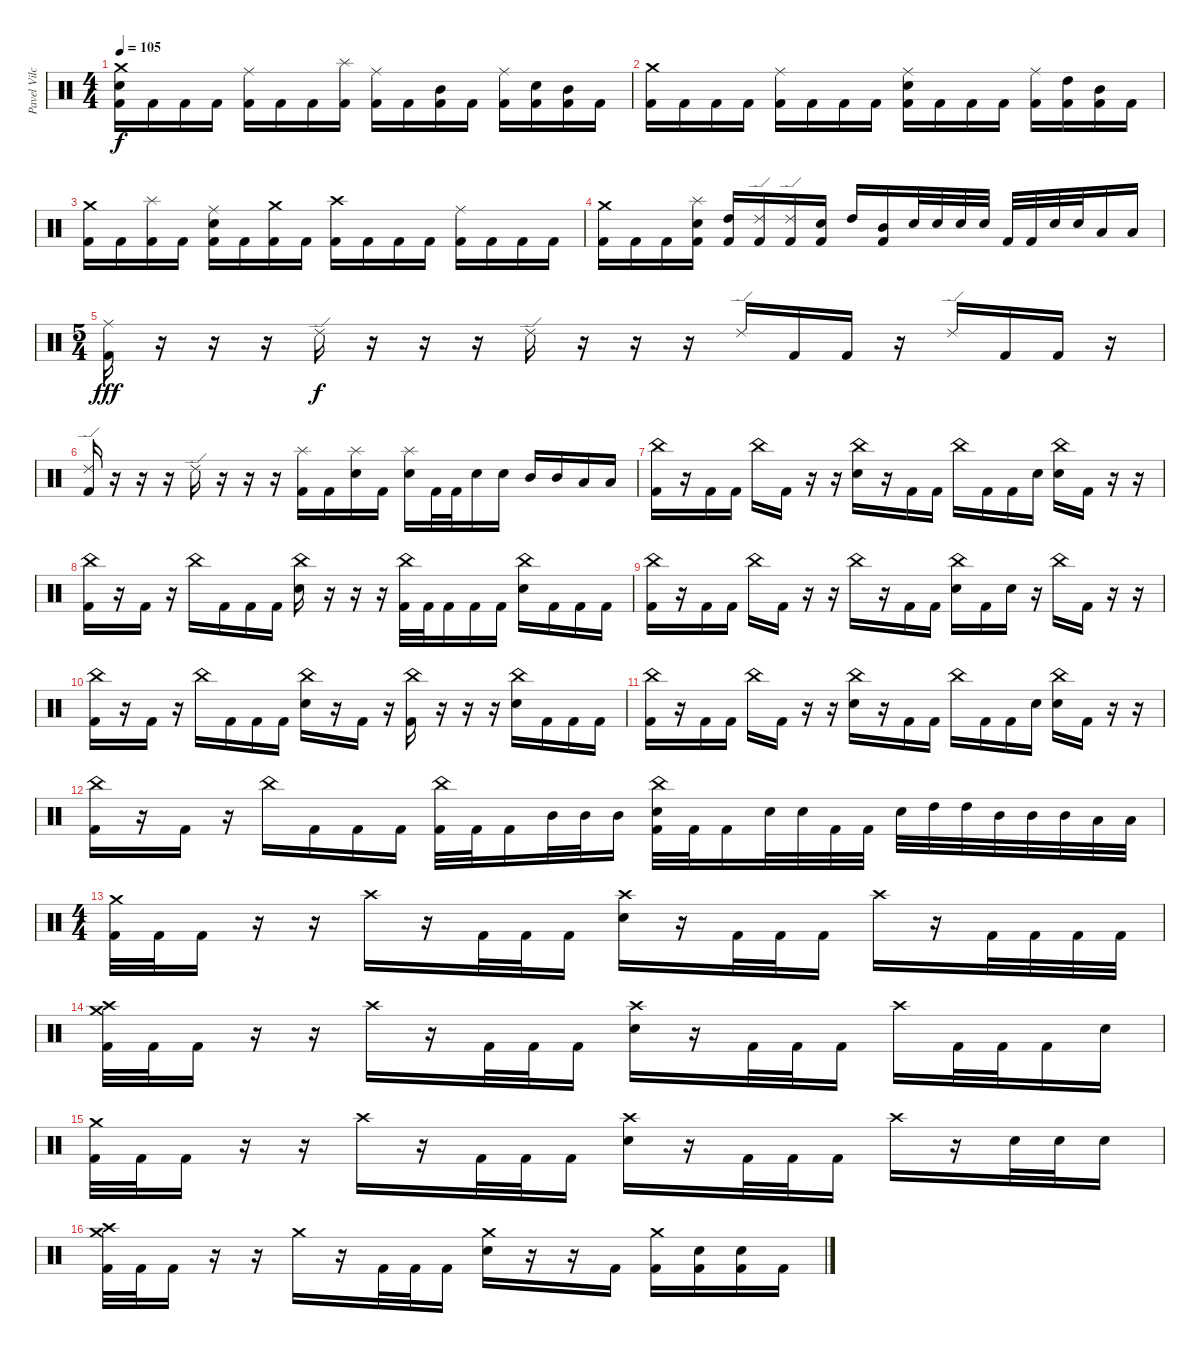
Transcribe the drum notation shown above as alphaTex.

\track ("Pavel Vilchytski " "Pavel Vilc") {instrument percussion}
\staff {score}
\articulation defaults
\ts (4 4)
\tempo 105
\clef neutral
\ks c
("Crash medium (hit)" "Electric Snare (hit)" "Kick (hit) 2").16{dy f} "Kick (hit) 2".16 "Kick (hit) 2".16 "Kick (hit) 2".16 ("Ride (middle)" "Kick (hit) 2").16 "Kick (hit) 2".16 "Kick (hit) 2".16 ("Splash (hit)" "Kick (hit) 2").16 ("Ride (middle)" "Kick (hit) 2").16 "Kick (hit) 2".16 ("Mid Tom (hit)" "Kick (hit) 2").16 "Kick (hit) 2".16 ("Ride (middle)" "Kick (hit) 2").16 ("Electric Snare (hit)" "Kick (hit) 2").16 ("Mid Tom (hit)" "Kick (hit) 2").16 "Kick (hit) 2".16 |
("Crash medium (hit)" "Kick (hit) 2").16 "Kick (hit) 2".16 "Kick (hit) 2".16 "Kick (hit) 2".16 ("Ride (middle)" "Kick (hit) 2").16 "Kick (hit) 2".16 "Kick (hit) 2".16 "Kick (hit) 2".16 ("Ride (middle)" "Electric Snare (hit)" "Kick (hit) 2").16 "Kick (hit) 2".16 "Kick (hit) 2".16 "Kick (hit) 2".16 ("Ride (middle)" "Kick (hit) 2").16 ("High Tom (hit)" "Kick (hit) 2").16 ("Mid Tom (hit)" "Kick (hit) 2").16 "Kick (hit) 2".16 |
("Crash medium (hit)" "Kick (hit) 2").16 "Kick (hit) 2".16 ("Splash (hit)" "Kick (hit) 2").16 "Kick (hit) 2".16 ("Ride (middle)" "Electric Snare (hit)" "Kick (hit) 2").16 "Kick (hit) 2".16 ("Crash medium (hit)" "Kick (hit) 2").16 "Kick (hit) 2".16 ("Crash high (hit)" "Kick (hit) 2").16 "Kick (hit) 2".16 "Kick (hit) 2".16 "Kick (hit) 2".16 ("Ride (middle)" "Kick (hit) 2").16 "Kick (hit) 2".16 "Kick (hit) 2".16 "Kick (hit) 2".16 |
("Crash medium (hit)" "Kick (hit) 2").16 "Kick (hit) 2".16 "Kick (hit) 2".16 ("Splash (hit)" "Electric Snare (hit)" "Kick (hit) 2").16 ("High Tom (hit)" "Kick (hit) 2").16 ("Ride (edge) 2" "Kick (hit) 2").16 ("Ride (edge) 2" "Kick (hit) 2").16 ("Electric Snare (hit)" "Kick (hit) 2").16 "High Tom (hit)".16 ("Mid Tom (hit)" "Kick (hit) 2").16 "Electric Snare (hit)".32 "Electric Snare (hit)".32 "Electric Snare (hit)".32 "Electric Snare (hit)".32 "Kick (hit) 2".32 "Kick (hit) 2".32 "Electric Snare (hit)".32 "Electric Snare (hit)".32 "Low Tom (hit)".16 "Low Tom (hit)".16 |
\ts (5 4)
("Ride (middle)" "Kick (hit) 2").16{dy fff} r.16 r.16 r.16 "Ride (edge) 2".16{dy f} r.16 r.16 r.16 "Ride (edge) 2".16 r.16 r.16 r.16 "Ride (edge) 2".16 "Kick (hit) 2".16 "Kick (hit) 2".16 r.16 "Ride (edge) 2".16 "Kick (hit) 2".16 "Kick (hit) 2".16 r.16 |
("Kick (hit) 2" "Ride (edge) 2").16 r.16 r.16 r.16 "Ride (edge) 2".16 r.16 r.16 r.16 ("Splash (hit)" "Kick (hit) 2").16 "Kick (hit) 2".16 ("Splash (hit)" "Electric Snare (hit)").16 "Kick (hit) 2".16 ("Splash (hit)" "Electric Snare (hit)").16 "Kick (hit) 2".32 "Kick (hit) 2".32 "Electric Snare (hit)".16 "Electric Snare (hit)".16 "Mid Tom (hit)".16 "Mid Tom (hit)".16 "Low Tom (hit)".16 "Low Tom (hit)".16 |
("China (hit)" "Kick (hit) 2").16 r.16 "Kick (hit) 2".16 "Kick (hit) 2".16 "China (hit)".16 "Kick (hit) 2".16 r.16 r.16 ("China (hit)" "Electric Snare (hit)").16 r.16 "Kick (hit) 2".16 "Kick (hit) 2".16 "China (hit)".16 "Kick (hit) 2".16 "Kick (hit) 2".16 "Electric Snare (hit)".16 ("China (hit)" "Electric Snare (hit)").16 "Kick (hit) 2".16 r.16 r.16 |
("China (hit)" "Kick (hit) 2").16 r.16 "Kick (hit) 2".16 r.16 "China (hit)".16 "Kick (hit) 2".16 "Kick (hit) 2".16 "Kick (hit) 2".16 ("China (hit)" "Electric Snare (hit)").16 r.16 r.16 r.16 ("China (hit)" "Kick (hit) 2").32 "Kick (hit) 2".32 "Kick (hit) 2".16 "Kick (hit) 2".16 "Kick (hit) 2".16 ("China (hit)" "Electric Snare (hit)").16 "Kick (hit) 2".16 "Kick (hit) 2".16 "Kick (hit) 2".16 |
("China (hit)" "Kick (hit) 2").16 r.16 "Kick (hit) 2".16 "Kick (hit) 2".16 "China (hit)".16 "Kick (hit) 2".16 r.16 r.16 "China (hit)".16 r.16 "Kick (hit) 2".16 "Kick (hit) 2".16 ("China (hit)" "Electric Snare (hit)").16 "Kick (hit) 2".16 "Electric Snare (hit)".16 r.16 "China (hit)".16 "Kick (hit) 2".16 r.16 r.16 |
("China (hit)" "Kick (hit) 2").16 r.16 "Kick (hit) 2".16 r.16 "China (hit)".16 "Kick (hit) 2".16 "Kick (hit) 2".16 "Kick (hit) 2".16 ("China (hit)" "Electric Snare (hit)").16 r.16 "Kick (hit) 2".16 r.16 ("China (hit)" "Kick (hit) 2").16 r.16 r.16 r.16 ("China (hit)" "Electric Snare (hit)").16 "Kick (hit) 2".16 "Kick (hit) 2".16 "Kick (hit) 2".16 |
("China (hit)" "Kick (hit) 2").16 r.16 "Kick (hit) 2".16 "Kick (hit) 2".16 "China (hit)".16 "Kick (hit) 2".16 r.16 r.16 ("China (hit)" "Electric Snare (hit)").16 r.16 "Kick (hit) 2".16 "Kick (hit) 2".16 "China (hit)".16 "Kick (hit) 2".16 "Kick (hit) 2".16 "Electric Snare (hit)".16 ("China (hit)" "Electric Snare (hit)").16 "Kick (hit) 2".16 r.16 r.16 |
("China (hit)" "Kick (hit) 2").16 r.16 "Kick (hit) 2".16 r.16 "China (hit)".16 "Kick (hit) 2".16 "Kick (hit) 2".16 "Kick (hit) 2".16 ("China (hit)" "Kick (hit) 2").32 "Kick (hit) 2".32 "Kick (hit) 2".16 "Mid Tom (hit)".32 "Mid Tom (hit)".32 "Mid Tom (hit)".16 ("China (hit)" "Electric Snare (hit)" "Kick (hit) 2").32 "Kick (hit) 2".32 "Kick (hit) 2".16 "Electric Snare (hit)".32 "Electric Snare (hit)".32 "Kick (hit) 2".32 "Kick (hit) 2".32 "Electric Snare (hit)".32 "High Tom (hit)".32 "High Tom (hit)".32 "Mid Tom (hit)".32 "Mid Tom (hit)".32 "Mid Tom (hit)".32 "Low Tom (hit)".32 "Low Tom (hit)".32 |
\ts (4 4)
("Crash medium (hit)" "Kick (hit) 2").32 "Kick (hit) 2".32 "Kick (hit) 2".16 r.16 r.16 "Crash high (hit)".16 r.16 "Kick (hit) 2".32 "Kick (hit) 2".32 "Kick (hit) 2".16 ("Crash high (hit)" "Electric Snare (hit)").16 r.16 "Kick (hit) 2".32 "Kick (hit) 2".32 "Kick (hit) 2".16 "Crash high (hit)".16 r.16 "Kick (hit) 2".32 "Kick (hit) 2".32 "Kick (hit) 2".32 "Kick (hit) 2".32 |
("Crash medium (hit)" "Crash high (hit)" "Kick (hit) 2").32 "Kick (hit) 2".32 "Kick (hit) 2".16 r.16 r.16 "Crash high (hit)".16 r.16 "Kick (hit) 2".32 "Kick (hit) 2".32 "Kick (hit) 2".16 ("Crash high (hit)" "Electric Snare (hit)").16 r.16 "Kick (hit) 2".32 "Kick (hit) 2".32 "Kick (hit) 2".16 "Crash high (hit)".16 "Kick (hit) 2".32 "Kick (hit) 2".32 "Kick (hit) 2".16 "Electric Snare (hit)".16 |
("Crash medium (hit)" "Kick (hit) 2").32 "Kick (hit) 2".32 "Kick (hit) 2".16 r.16 r.16 "Crash high (hit)".16 r.16 "Kick (hit) 2".32 "Kick (hit) 2".32 "Kick (hit) 2".16 ("Crash high (hit)" "Electric Snare (hit)").16 r.16 "Kick (hit) 2".32 "Kick (hit) 2".32 "Kick (hit) 2".16 "Crash high (hit)".16 r.16 "Electric Snare (hit)".32 "Electric Snare (hit)".32 "Electric Snare (hit)".16 |
("Crash medium (hit)" "Crash high (hit)" "Kick (hit) 2").32 "Kick (hit) 2".32 "Kick (hit) 2".16 r.16 r.16 "Crash medium (hit)".16 r.16 "Kick (hit) 2".32 "Kick (hit) 2".32 "Kick (hit) 2".16 ("Crash medium (hit)" "Electric Snare (hit)").16 r.16 r.16 "Kick (hit) 2".16 ("Crash medium (hit)" "Kick (hit) 2").16 ("Electric Snare (hit)" "Kick (hit) 2").16 ("Electric Snare (hit)" "Kick (hit) 2").16 "Kick (hit) 2".16
